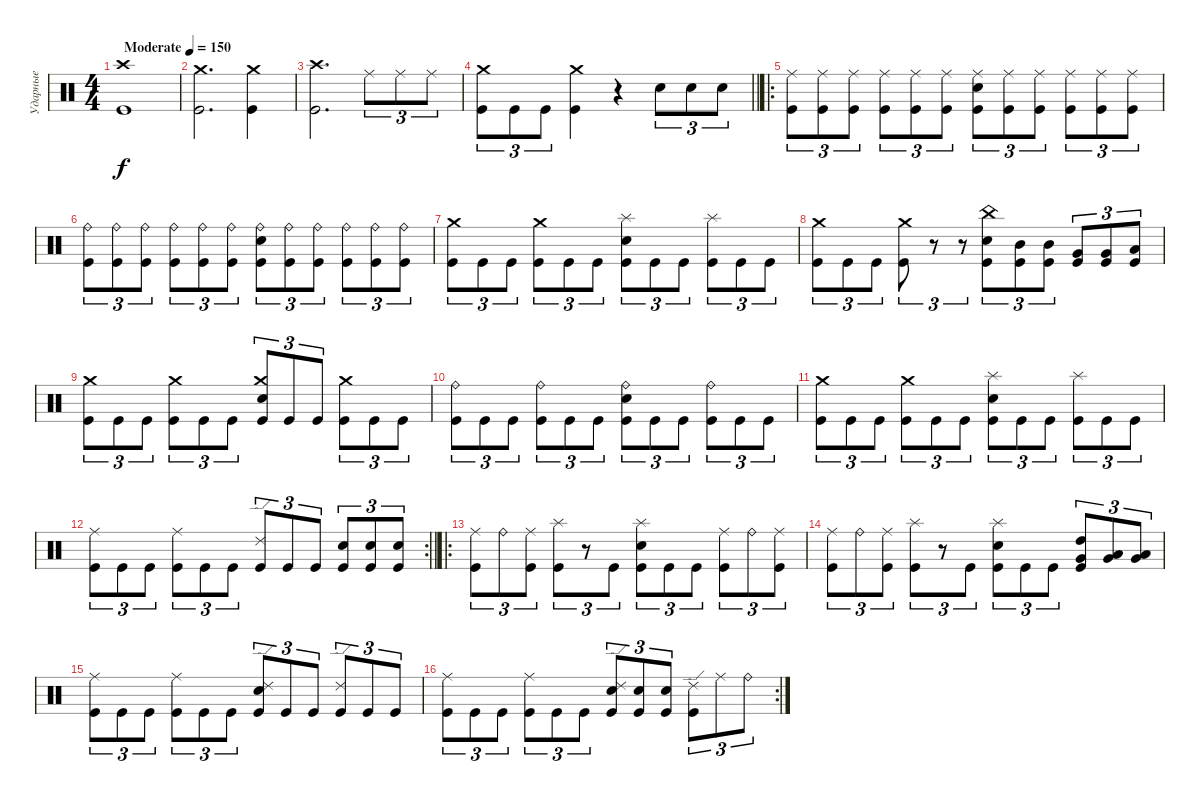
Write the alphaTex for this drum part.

\track ("Ударные" "Ударные") {instrument percussion}
\staff {score}
\articulation defaults
\ts (4 4)
\tempo (150 "Moderate")
\clef neutral
\ks c
("Crash high (hit)" "Kick (hit)").1{dy f} |
("Crash medium (hit)" "Kick (hit)").2{d} ("Crash medium (hit)" "Kick (hit)").4 |
("Crash high (hit)" "Kick (hit)").2{d} "Ride (middle)".8{tu (3 2)} "Ride (middle)".8{tu (3 2)} "Ride (middle)".8{tu (3 2)} |
\barLineRight lightlight
("Crash medium (hit)" "Kick (hit)").8{tu (3 2)} "Kick (hit)".8{tu (3 2)} "Kick (hit)".8{tu (3 2)} ("Crash medium (hit)" "Kick (hit)").4 r.4 "Electric Snare (hit)".8{tu (3 2)} "Electric Snare (hit)".8{tu (3 2)} "Electric Snare (hit)".8{tu (3 2)} |
\ro
\section ("" " ")
("Ride (middle)" "Kick (hit)").8{tu (3 2)} ("Ride (middle)" "Kick (hit)").8{tu (3 2)} ("Ride (middle)" "Kick (hit)").8{tu (3 2)} ("Ride (middle)" "Kick (hit)").8{tu (3 2)} ("Ride (middle)" "Kick (hit)").8{tu (3 2)} ("Ride (middle)" "Kick (hit)").8{tu (3 2)} ("Ride (middle)" "Electric Snare (hit)" "Kick (hit)").8{tu (3 2)} ("Ride (middle)" "Kick (hit)").8{tu (3 2)} ("Ride (middle)" "Kick (hit)").8{tu (3 2)} ("Ride (middle)" "Kick (hit)").8{tu (3 2)} ("Ride (middle)" "Kick (hit)").8{tu (3 2)} ("Ride (middle)" "Kick (hit)").8{tu (3 2)} |
("Ride (bell)" "Kick (hit)").8{tu (3 2)} ("Ride (bell)" "Kick (hit)").8{tu (3 2)} ("Ride (bell)" "Kick (hit)").8{tu (3 2)} ("Ride (bell)" "Kick (hit)").8{tu (3 2)} ("Ride (bell)" "Kick (hit)").8{tu (3 2)} ("Ride (bell)" "Kick (hit)").8{tu (3 2)} ("Ride (bell)" "Electric Snare (hit)" "Kick (hit)").8{tu (3 2)} ("Ride (bell)" "Kick (hit)").8{tu (3 2)} ("Ride (bell)" "Kick (hit)").8{tu (3 2)} ("Ride (bell)" "Kick (hit)").8{tu (3 2)} ("Ride (bell)" "Kick (hit)").8{tu (3 2)} ("Ride (bell)" "Kick (hit)").8{tu (3 2)} |
("Crash medium (hit)" "Kick (hit)").8{tu (3 2)} "Kick (hit)".8{tu (3 2)} "Kick (hit)".8{tu (3 2)} ("Crash medium (hit)" "Kick (hit)").8{tu (3 2)} "Kick (hit)".8{tu (3 2)} "Kick (hit)".8{tu (3 2)} ("Splash (hit)" "Electric Snare (hit)" "Kick (hit)").8{tu (3 2)} "Kick (hit)".8{tu (3 2)} "Kick (hit)".8{tu (3 2)} ("Splash (hit)" "Kick (hit)").8{tu (3 2)} "Kick (hit)".8{tu (3 2)} "Kick (hit)".8{tu (3 2)} |
("Crash medium (hit)" "Kick (hit)").8{tu (3 2)} "Kick (hit)".8{tu (3 2)} "Kick (hit)".8{tu (3 2)} ("Crash medium (hit)" "Kick (hit)").8{tu (3 2)} r.8{tu (3 2)} r.8{tu (3 2)} ("China (hit)" "Electric Snare (hit)" "Kick (hit)").8{tu (3 2)} ("Mid Tom (hit)" "Kick (hit)").8{tu (3 2)} ("Mid Tom (hit)" "Kick (hit)").8{tu (3 2)} ("Very Low Tom (hit)" "Kick (hit)").8{tu (3 2)} ("Very Low Tom (hit)" "Kick (hit)").8{tu (3 2)} ("Low Floor Tom (hit)" "Kick (hit)").8{tu (3 2)} |
("Crash medium (hit)" "Kick (hit)").8{tu (3 2)} "Kick (hit)".8{tu (3 2)} "Kick (hit)".8{tu (3 2)} ("Crash medium (hit)" "Kick (hit)").8{tu (3 2)} "Kick (hit)".8{tu (3 2)} "Kick (hit)".8{tu (3 2)} ("Crash medium (hit)" "Electric Snare (hit)" "Kick (hit)").8{tu (3 2)} "Kick (hit)".8{tu (3 2)} "Kick (hit)".8{tu (3 2)} ("Crash medium (hit)" "Kick (hit)").8{tu (3 2)} "Kick (hit)".8{tu (3 2)} "Kick (hit)".8{tu (3 2)} |
("Ride (bell)" "Kick (hit)").8{tu (3 2)} "Kick (hit)".8{tu (3 2)} "Kick (hit)".8{tu (3 2)} ("Ride (bell)" "Kick (hit)").8{tu (3 2)} "Kick (hit)".8{tu (3 2)} "Kick (hit)".8{tu (3 2)} ("Ride (bell)" "Electric Snare (hit)" "Kick (hit)").8{tu (3 2)} "Kick (hit)".8{tu (3 2)} "Kick (hit)".8{tu (3 2)} ("Ride (bell)" "Kick (hit)").8{tu (3 2)} "Kick (hit)".8{tu (3 2)} "Kick (hit)".8{tu (3 2)} |
("Crash medium (hit)" "Kick (hit)").8{tu (3 2)} "Kick (hit)".8{tu (3 2)} "Kick (hit)".8{tu (3 2)} ("Crash medium (hit)" "Kick (hit)").8{tu (3 2)} "Kick (hit)".8{tu (3 2)} "Kick (hit)".8{tu (3 2)} ("Splash (hit)" "Electric Snare (hit)" "Kick (hit)").8{tu (3 2)} "Kick (hit)".8{tu (3 2)} "Kick (hit)".8{tu (3 2)} ("Splash (hit)" "Kick (hit)").8{tu (3 2)} "Kick (hit)".8{tu (3 2)} "Kick (hit)".8{tu (3 2)} |
\rc 2
\barLineRight lightlight
("Ride (middle)" "Kick (hit)").8{tu (3 2)} "Kick (hit)".8{tu (3 2)} "Kick (hit)".8{tu (3 2)} ("Ride (middle)" "Kick (hit)").8{tu (3 2)} "Kick (hit)".8{tu (3 2)} "Kick (hit)".8{tu (3 2)} ("Ride (edge) 2" "Kick (hit)").8{tu (3 2)} "Kick (hit)".8{tu (3 2)} "Kick (hit)".8{tu (3 2)} ("Electric Snare (hit)" "Kick (hit)").8{tu (3 2)} ("Electric Snare (hit)" "Kick (hit)").8{tu (3 2)} ("Electric Snare (hit)" "Kick (hit)").8{tu (3 2)} |
\ro
\section ("" " ")
("Kick (hit)" "Ride (middle)").8{tu (3 2)} "Ride (bell)".8{tu (3 2)} ("Kick (hit)" "Ride (middle)").8{tu (3 2)} ("Kick (hit)" "Splash (hit)").8{tu (3 2)} r.8{tu (3 2)} "Kick (hit)".8{tu (3 2)} ("Electric Snare (hit)" "Kick (hit)" "Splash (hit)").8{tu (3 2)} "Kick (hit)".8{tu (3 2)} "Kick (hit)".8{tu (3 2)} ("Kick (hit)" "Ride (middle)").8{tu (3 2)} "Ride (bell)".8{tu (3 2)} ("Kick (hit)" "Ride (middle)").8{tu (3 2)} |
("Kick (hit)" "Ride (middle)").8{tu (3 2)} "Ride (bell)".8{tu (3 2)} ("Kick (hit)" "Ride (middle)").8{tu (3 2)} ("Kick (hit)" "Splash (hit)").8{tu (3 2)} r.8{tu (3 2)} "Kick (hit)".8{tu (3 2)} ("Electric Snare (hit)" "Kick (hit)" "Splash (hit)").8{tu (3 2)} "Kick (hit)".8{tu (3 2)} "Kick (hit)".8{tu (3 2)} ("Kick (hit)" "High Tom (hit)" "Very Low Tom (hit)").8{tu (3 2)} ("Low Tom (hit)" "Very Low Tom (hit)").8{tu (3 2)} ("Very Low Tom (hit)" "Low Floor Tom (hit)").8{tu (3 2)} |
("Ride (middle)" "Kick (hit)").8{tu (3 2)} "Kick (hit)".8{tu (3 2)} "Kick (hit)".8{tu (3 2)} ("Ride (middle)" "Kick (hit)").8{tu (3 2)} "Kick (hit)".8{tu (3 2)} "Kick (hit)".8{tu (3 2)} ("Ride (edge) 2" "Electric Snare (hit)" "Kick (hit)").8{tu (3 2)} "Kick (hit)".8{tu (3 2)} "Kick (hit)".8{tu (3 2)} ("Ride (edge) 2" "Kick (hit)").8{tu (3 2)} "Kick (hit)".8{tu (3 2)} "Kick (hit)".8{tu (3 2)} |
\rc 2
("Ride (middle)" "Kick (hit)").8{tu (3 2)} "Kick (hit)".8{tu (3 2)} "Kick (hit)".8{tu (3 2)} ("Ride (middle)" "Kick (hit)").8{tu (3 2)} "Kick (hit)".8{tu (3 2)} "Kick (hit)".8{tu (3 2)} ("Ride (edge) 2" "Electric Snare (hit)" "Kick (hit)").8{tu (3 2)} ("Electric Snare (hit)" "Kick (hit)").8{tu (3 2)} ("Electric Snare (hit)" "Kick (hit)").8{tu (3 2)} ("Ride (edge) 2" "Kick (hit)").8{tu (3 2)} "Ride (middle)".8{tu (3 2)} "Ride (bell)".8{tu (3 2)}
